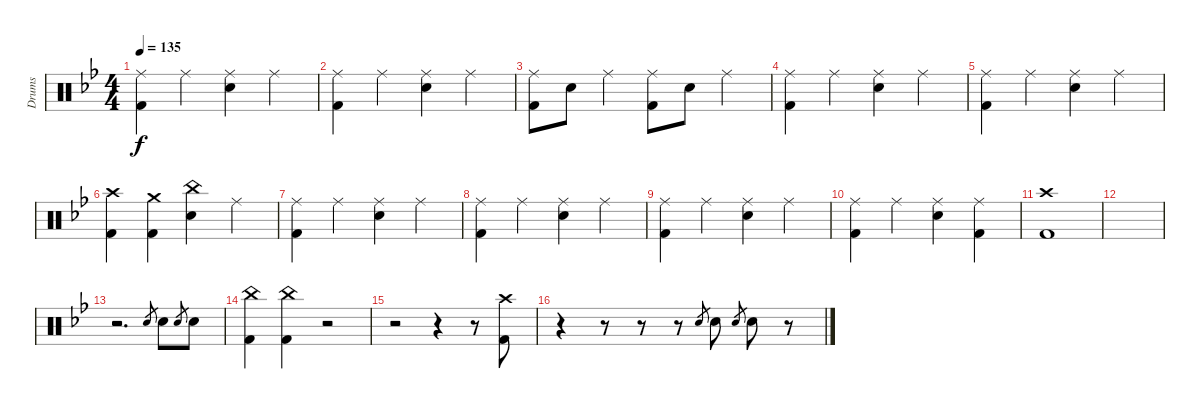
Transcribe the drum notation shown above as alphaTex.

\track ("Drums" "Drums") {instrument percussion}
\staff {score}
\articulation defaults
\ts (4 4)
\tempo 135
\clef neutral
\ks bb
("Ride (middle)" "Kick (hit) 2").4{dy f} "Ride (middle)".4 ("Ride (middle)" "Snare (hit) 2").4 "Ride (middle)".4 |
("Ride (middle)" "Kick (hit) 2").4 "Ride (middle)".4 ("Ride (middle)" "Snare (hit) 2").4 "Ride (middle)".4 |
("Ride (middle)" "Kick (hit) 2").8 "Snare (hit) 2".8 "Ride (middle)".4 ("Ride (middle)" "Kick (hit) 2").8 "Snare (hit) 2".8 "Ride (middle)".4 |
("Ride (middle)" "Kick (hit) 2").4 "Ride (middle)".4 ("Ride (middle)" "Snare (hit) 2").4 "Ride (middle)".4 |
("Ride (middle)" "Kick (hit) 2").4 "Ride (middle)".4 ("Ride (middle)" "Snare (hit) 2").4 "Ride (middle)".4 |
("Crash high (hit)" "Kick (hit) 2").4 ("Crash medium (hit)" "Kick (hit) 2").4 ("China (hit)" "Snare (hit) 2").4 "Ride (middle)".4 |
("Ride (middle)" "Kick (hit) 2").4 "Ride (middle)".4 ("Ride (middle)" "Snare (hit) 2").4 "Ride (middle)".4 |
("Ride (middle)" "Kick (hit) 2").4 "Ride (middle)".4 ("Ride (middle)" "Snare (hit) 2").4 "Ride (middle)".4 |
("Ride (middle)" "Kick (hit) 2").4 "Ride (middle)".4 ("Ride (middle)" "Snare (hit) 2").4 "Ride (middle)".4 |
("Ride (middle)" "Kick (hit) 2").4 "Ride (middle)".4 ("Ride (middle)" "Snare (hit) 2").4 ("Ride (middle)" "Kick (hit) 2").4 |
("Crash high (hit)" "Kick (hit) 2").1 |
|
r.2{d} "Snare (hit) 2".8{gr} "Snare (hit) 2".8 "Snare (hit) 2".8{gr} "Snare (hit) 2".8 |
("China (hit)" "Kick (hit) 2").4 ("China (hit)" "Kick (hit) 2").4 r.2 |
r.2 r.4 r.8 ("Crash high (hit)" "Kick (hit) 2").8 |
r.4 r.8 r.8 r.8 "Snare (hit) 2".8{gr} "Snare (hit) 2".8 "Snare (hit) 2".8{gr} "Snare (hit) 2".8 r.8
